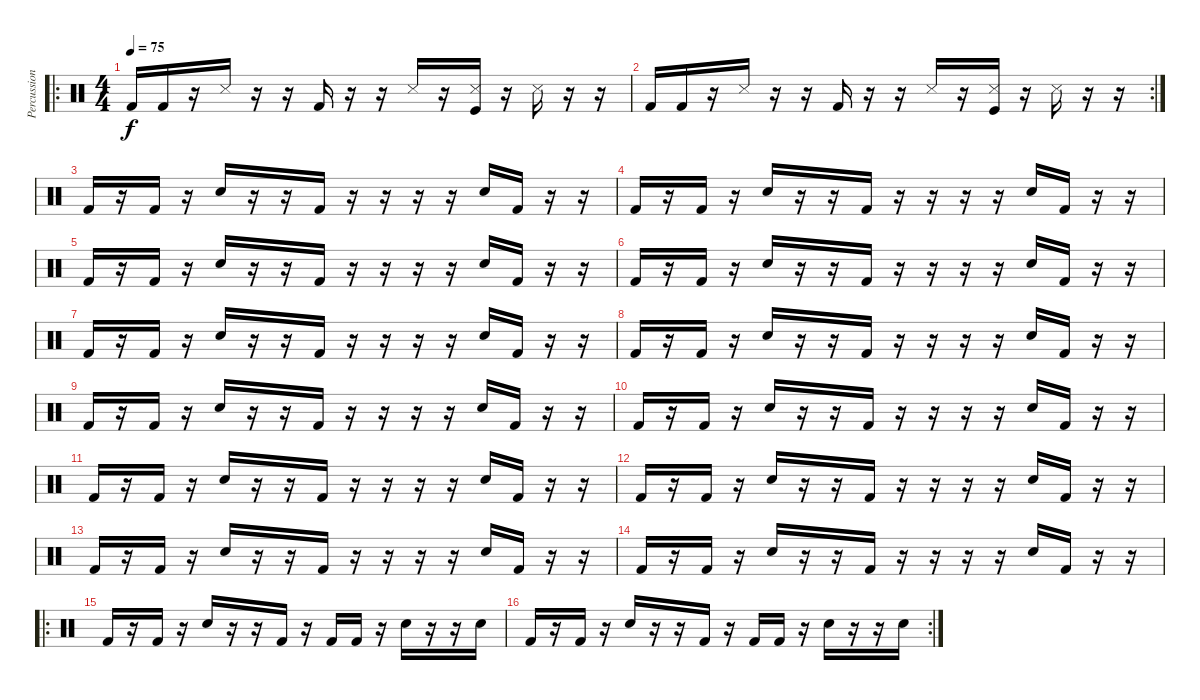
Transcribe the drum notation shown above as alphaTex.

\track ("Percussions" "Percussion") {instrument percussion}
\staff {score}
\articulation defaults
\ro
\ts (4 4)
\tempo 75
\clef neutral
\ks c "Kick (hit) 2".16{dy f} "Kick (hit) 2".16
r.16 "Snare (side stick) 3".16 r.16 r.16 "Kick (hit) 2".16 r.16 r.16 "Snare (side stick) 3".16 r.16 ("Snare (side stick) 3" "Kick (hit)").16 r.16 "Snare (side stick) 3".16 r.16 r.16 |
\rc 2 "Kick (hit) 2".16 "Kick (hit) 2".16
r.16 "Snare (side stick) 3".16 r.16 r.16 "Kick (hit) 2".16 r.16 r.16 "Snare (side stick) 3".16 r.16 ("Snare (side stick) 3" "Kick (hit)").16 r.16 "Snare (side stick) 3".16 r.16 r.16 |
"Kick (hit) 2".16 r.16 "Kick (hit) 2".16 r.16 "Electric Snare (hit)".16 r.16 r.16 "Kick (hit) 2".16 r.16 r.16 r.16 r.16 "Electric Snare (hit)".16 "Kick (hit) 2".16 r.16 r.16 |
"Kick (hit) 2".16 r.16 "Kick (hit) 2".16 r.16 "Electric Snare (hit)".16 r.16 r.16 "Kick (hit) 2".16 r.16 r.16 r.16 r.16 "Electric Snare (hit)".16 "Kick (hit) 2".16 r.16 r.16 |
"Kick (hit) 2".16 r.16 "Kick (hit) 2".16 r.16 "Electric Snare (hit)".16 r.16 r.16 "Kick (hit) 2".16 r.16 r.16 r.16 r.16 "Electric Snare (hit)".16 "Kick (hit) 2".16 r.16 r.16 |
"Kick (hit) 2".16 r.16 "Kick (hit) 2".16 r.16 "Electric Snare (hit)".16 r.16 r.16 "Kick (hit) 2".16 r.16 r.16 r.16 r.16 "Electric Snare (hit)".16 "Kick (hit) 2".16 r.16 r.16 |
"Kick (hit) 2".16 r.16 "Kick (hit) 2".16 r.16 "Electric Snare (hit)".16 r.16 r.16 "Kick (hit) 2".16 r.16 r.16 r.16 r.16 "Electric Snare (hit)".16 "Kick (hit) 2".16 r.16 r.16 |
"Kick (hit) 2".16 r.16 "Kick (hit) 2".16 r.16 "Electric Snare (hit)".16 r.16 r.16 "Kick (hit) 2".16 r.16 r.16 r.16 r.16 "Electric Snare (hit)".16 "Kick (hit) 2".16 r.16 r.16 |
"Kick (hit) 2".16 r.16 "Kick (hit) 2".16 r.16 "Electric Snare (hit)".16 r.16 r.16 "Kick (hit) 2".16 r.16 r.16 r.16 r.16 "Electric Snare (hit)".16 "Kick (hit) 2".16 r.16 r.16 |
"Kick (hit) 2".16 r.16 "Kick (hit) 2".16 r.16 "Electric Snare (hit)".16 r.16 r.16 "Kick (hit) 2".16 r.16 r.16 r.16 r.16 "Electric Snare (hit)".16 "Kick (hit) 2".16 r.16 r.16 |
"Kick (hit) 2".16 r.16 "Kick (hit) 2".16 r.16 "Electric Snare (hit)".16 r.16 r.16 "Kick (hit) 2".16 r.16 r.16 r.16 r.16 "Electric Snare (hit)".16 "Kick (hit) 2".16 r.16 r.16 |
"Kick (hit) 2".16 r.16 "Kick (hit) 2".16 r.16 "Electric Snare (hit)".16 r.16 r.16 "Kick (hit) 2".16 r.16 r.16 r.16 r.16 "Electric Snare (hit)".16 "Kick (hit) 2".16 r.16 r.16 |
"Kick (hit) 2".16 r.16 "Kick (hit) 2".16 r.16 "Electric Snare (hit)".16 r.16 r.16 "Kick (hit) 2".16 r.16 r.16 r.16 r.16 "Electric Snare (hit)".16 "Kick (hit) 2".16 r.16 r.16 |
"Kick (hit) 2".16 r.16 "Kick (hit) 2".16 r.16 "Electric Snare (hit)".16 r.16 r.16 "Kick (hit) 2".16 r.16 r.16 r.16 r.16 "Electric Snare (hit)".16 "Kick (hit) 2".16 r.16 r.16 |
\ro "Kick (hit) 2".16
r.16 "Kick (hit) 2".16 r.16 "Electric Snare (hit)".16 r.16 r.16 "Kick (hit) 2".16 r.16 "Kick (hit) 2".16 "Kick (hit) 2".16 r.16 "Electric Snare (hit)".16 r.16 r.16 "Electric Snare (hit)".16 |
\rc 2 "Kick (hit) 2".16
r.16 "Kick (hit) 2".16 r.16 "Electric Snare (hit)".16 r.16 r.16 "Kick (hit) 2".16 r.16 "Kick (hit) 2".16 "Kick (hit) 2".16 r.16 "Electric Snare (hit)".16 r.16 r.16 "Electric Snare (hit)".16
